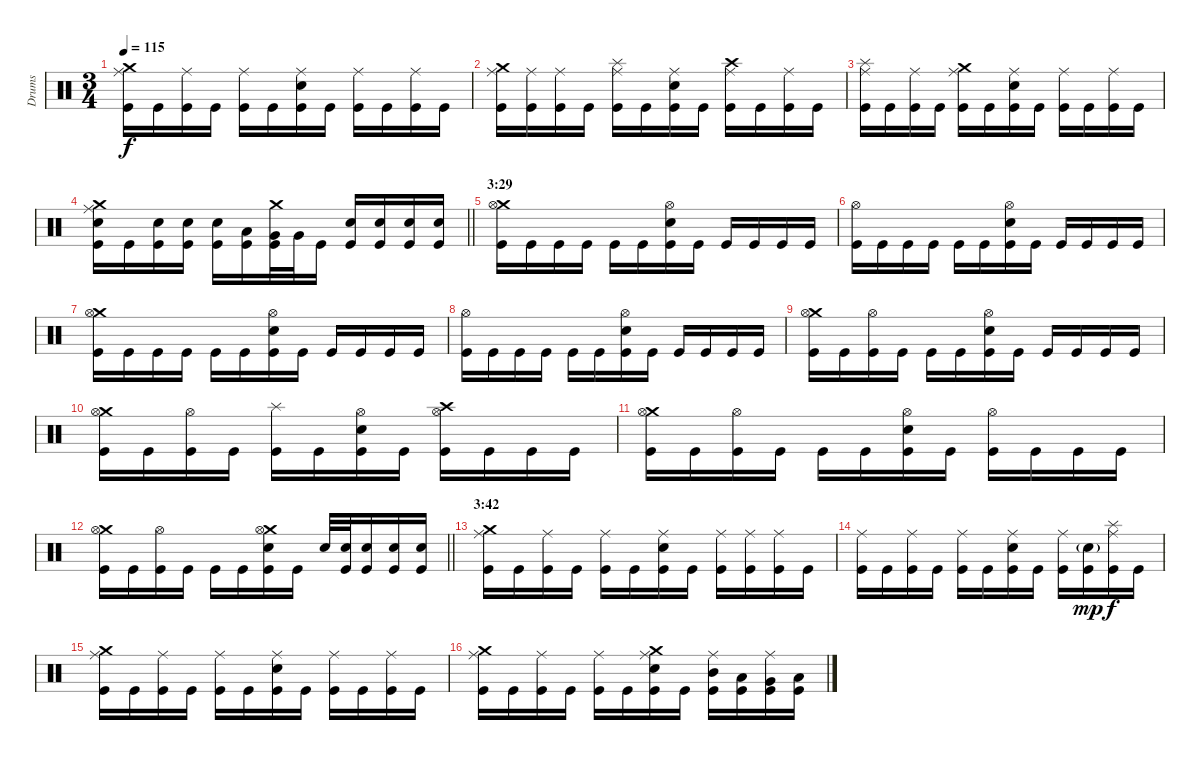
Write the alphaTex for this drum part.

\track ("Drums" "Drums") {instrument percussion}
\staff {score}
\articulation defaults
\ts (3 4)
\tempo 115
\clef neutral
\ks c
("Crash medium (hit)" "Ride (middle)" "Kick (hit)").16{dy f} "Kick (hit)".16 ("Ride (middle)" "Kick (hit)").16 "Kick (hit)".16 ("Ride (middle)" "Kick (hit)").16 "Kick (hit)".16 ("Ride (middle)" "Electric Snare (hit)" "Kick (hit)").16 "Kick (hit)".16 ("Ride (middle)" "Kick (hit)").16 "Kick (hit)".16 ("Ride (middle)" "Kick (hit)").16 "Kick (hit)".16 |
("Crash medium (hit)" "Ride (middle)" "Kick (hit)").16 ("Ride (middle)" "Kick (hit)").16 ("Ride (middle)" "Kick (hit)").16 "Kick (hit)".16 ("Splash (hit)" "Ride (middle)" "Kick (hit)").16 "Kick (hit)".16 ("Ride (middle)" "Electric Snare (hit)" "Kick (hit)").16 "Kick (hit)".16 ("Crash high (hit)" "Ride (middle)" "Kick (hit)").16 "Kick (hit)".16 ("Ride (middle)" "Kick (hit)").16 "Kick (hit)".16 |
("Splash (hit)" "Ride (middle)" "Kick (hit)").16 "Kick (hit)".16 ("Ride (middle)" "Kick (hit)").16 "Kick (hit)".16 ("Crash medium (hit)" "Ride (middle)" "Kick (hit)").16 "Kick (hit)".16 ("Ride (middle)" "Electric Snare (hit)" "Kick (hit)").16 "Kick (hit)".16 ("Ride (middle)" "Kick (hit)").16 "Kick (hit)".16 ("Ride (middle)" "Kick (hit)").16 "Kick (hit)".16 |
\barLineRight lightlight
("Crash medium (hit)" "Electric Snare (hit)" "Ride (middle)" "Kick (hit)").16 "Kick (hit)".16 ("Electric Snare (hit)" "Kick (hit)").16 ("Electric Snare (hit)" "Kick (hit)").16 ("Electric Snare (hit)" "Kick (hit)").16 ("Low Tom (hit)" "Kick (hit)").16 ("Crash medium (hit)" "Very Low Tom (hit)" "Kick (hit)").32 "Very Low Tom (hit)".32 "Kick (hit)".16 ("Electric Snare (hit)" "Kick (hit)").16 ("Electric Snare (hit)" "Kick (hit)").16 ("Electric Snare (hit)" "Kick (hit)").16 ("Electric Snare (hit)" "Kick (hit)").16 |
\section ("" "3:29")
("Crash medium (hit)" "Hi-Hat (open)" "Kick (hit)").16 "Kick (hit)".16 "Kick (hit)".16 "Kick (hit)".16 "Kick (hit)".16 "Kick (hit)".16 ("Hi-Hat (open)" "Electric Snare (hit)" "Kick (hit)").16 "Kick (hit)".16 "Kick (hit)".16 "Kick (hit)".16 "Kick (hit)".16 "Kick (hit)".16 |
("Hi-Hat (open)" "Kick (hit)").16 "Kick (hit)".16 "Kick (hit)".16 "Kick (hit)".16 "Kick (hit)".16 "Kick (hit)".16 ("Hi-Hat (open)" "Electric Snare (hit)" "Kick (hit)").16 "Kick (hit)".16 "Kick (hit)".16 "Kick (hit)".16 "Kick (hit)".16 "Kick (hit)".16 |
("Crash medium (hit)" "Hi-Hat (open)" "Kick (hit)").16 "Kick (hit)".16 "Kick (hit)".16 "Kick (hit)".16 "Kick (hit)".16 "Kick (hit)".16 ("Hi-Hat (open)" "Electric Snare (hit)" "Kick (hit)").16 "Kick (hit)".16 "Kick (hit)".16 "Kick (hit)".16 "Kick (hit)".16 "Kick (hit)".16 |
("Hi-Hat (open)" "Kick (hit)").16 "Kick (hit)".16 "Kick (hit)".16 "Kick (hit)".16 "Kick (hit)".16 "Kick (hit)".16 ("Hi-Hat (open)" "Electric Snare (hit)" "Kick (hit)").16 "Kick (hit)".16 "Kick (hit)".16 "Kick (hit)".16 "Kick (hit)".16 "Kick (hit)".16 |
("Crash medium (hit)" "Hi-Hat (open)" "Kick (hit)").16 "Kick (hit)".16 ("Hi-Hat (open)" "Kick (hit)").16 "Kick (hit)".16 "Kick (hit)".16 "Kick (hit)".16 ("Hi-Hat (open)" "Electric Snare (hit)" "Kick (hit)").16 "Kick (hit)".16 "Kick (hit)".16 "Kick (hit)".16 "Kick (hit)".16 "Kick (hit)".16 |
("Crash medium (hit)" "Hi-Hat (open)" "Kick (hit)").16 "Kick (hit)".16 ("Hi-Hat (open)" "Kick (hit)").16 "Kick (hit)".16 ("Splash (hit)" "Kick (hit)").16 "Kick (hit)".16 ("Hi-Hat (open)" "Electric Snare (hit)" "Kick (hit)").16 "Kick (hit)".16 ("Crash high (hit)" "Hi-Hat (open)" "Kick (hit)").16 "Kick (hit)".16 "Kick (hit)".16 "Kick (hit)".16 |
("Crash medium (hit)" "Hi-Hat (open)" "Kick (hit)").16 "Kick (hit)".16 ("Hi-Hat (open)" "Kick (hit)").16 "Kick (hit)".16 "Kick (hit)".16 "Kick (hit)".16 ("Hi-Hat (open)" "Electric Snare (hit)" "Kick (hit)").16 "Kick (hit)".16 ("Hi-Hat (open)" "Kick (hit)").16 "Kick (hit)".16 "Kick (hit)".16 "Kick (hit)".16 |
\barLineRight lightlight
("Crash medium (hit)" "Hi-Hat (open)" "Kick (hit)").16 "Kick (hit)".16 ("Hi-Hat (open)" "Kick (hit)").16 "Kick (hit)".16 "Kick (hit)".16 "Kick (hit)".16 ("Crash medium (hit)" "Hi-Hat (open)" "Electric Snare (hit)" "Kick (hit)").16 "Kick (hit)".16 "Electric Snare (hit)".32 ("Electric Snare (hit)" "Kick (hit)").32 ("Electric Snare (hit)" "Kick (hit)").16 ("Electric Snare (hit)" "Kick (hit)").16 ("Electric Snare (hit)" "Kick (hit)").16 |
\section ("" "3:42")
("Crash medium (hit)" "Ride (middle)" "Kick (hit)").16 "Kick (hit)".16 ("Ride (middle)" "Kick (hit)").16 "Kick (hit)".16 ("Ride (middle)" "Kick (hit)").16 "Kick (hit)".16 ("Ride (middle)" "Electric Snare (hit)" "Kick (hit)").16 "Kick (hit)".16 ("Ride (middle)" "Kick (hit)").16 ("Ride (middle)" "Kick (hit)").16 ("Ride (middle)" "Kick (hit)").16 "Kick (hit)".16 |
("Ride (middle)" "Kick (hit)").16 "Kick (hit)".16 ("Ride (middle)" "Kick (hit)").16 "Kick (hit)".16 ("Ride (middle)" "Kick (hit)").16 "Kick (hit)".16 ("Ride (middle)" "Electric Snare (hit)" "Kick (hit)").16 "Kick (hit)".16 ("Ride (middle)" "Kick (hit)").16 ("Electric Snare (hit)"{g} "Kick (hit)").16{dy mp} ("Splash (hit)" "Ride (middle)" "Kick (hit)").16{dy f} "Kick (hit)".16 |
("Crash medium (hit)" "Ride (middle)" "Kick (hit)").16 "Kick (hit)".16 ("Ride (middle)" "Kick (hit)").16 "Kick (hit)".16 ("Ride (middle)" "Kick (hit)").16 "Kick (hit)".16 ("Ride (middle)" "Electric Snare (hit)" "Kick (hit)").16 "Kick (hit)".16 ("Ride (middle)" "Kick (hit)").16 "Kick (hit)".16 ("Ride (middle)" "Kick (hit)").16 "Kick (hit)".16 |
("Crash medium (hit)" "Ride (middle)" "Kick (hit)").16 "Kick (hit)".16 ("Ride (middle)" "Kick (hit)").16 "Kick (hit)".16 ("Ride (middle)" "Kick (hit)").16 "Kick (hit)".16 ("Crash medium (hit)" "Ride (middle)" "Electric Snare (hit)" "Kick (hit)").16 "Kick (hit)".16 ("Mid Tom (hit)" "Ride (middle)" "Kick (hit)").16 ("Low Tom (hit)" "Kick (hit)").16 ("Very Low Tom (hit)" "Ride (middle)" "Kick (hit)").16 ("Low Floor Tom (hit)" "Kick (hit)").16
